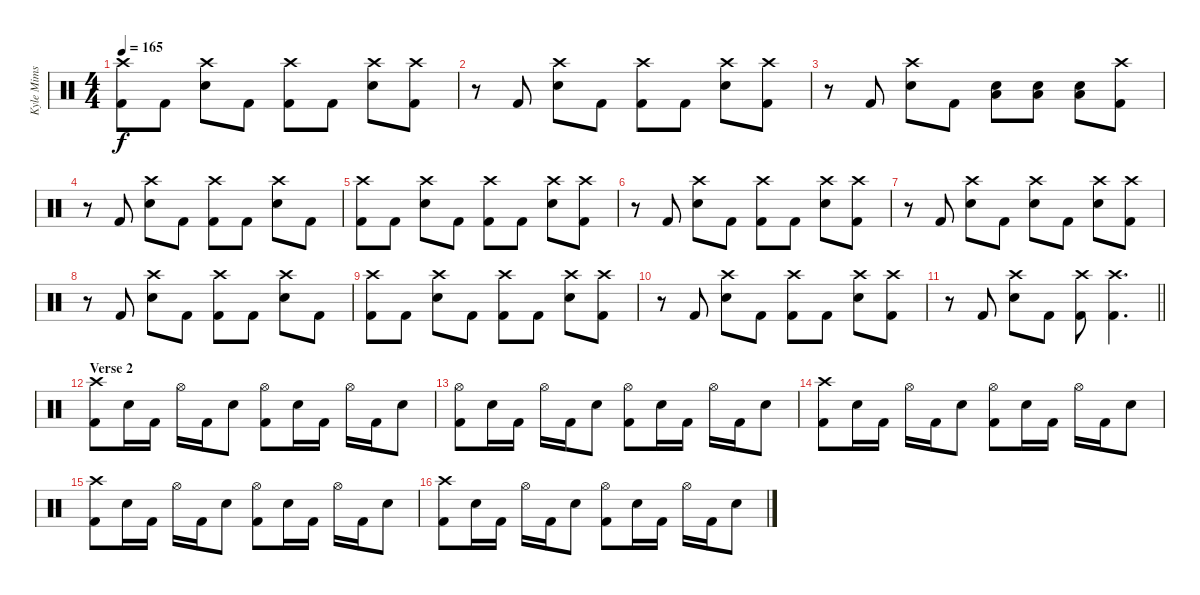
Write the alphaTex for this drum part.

\track ("Kyle Mims" "Kyle Mims") {instrument percussion}
\staff {score}
\articulation defaults
\ts (4 4)
\tempo 165
\clef neutral
\ks c
("Crash high (hit)" "Kick (hit) 2").8{dy f} "Kick (hit) 2".8 ("Crash high (hit)" "Electric Snare (hit)").8 "Kick (hit) 2".8 ("Crash high (hit)" "Kick (hit) 2").8 "Kick (hit) 2".8 ("Crash high (hit)" "Electric Snare (hit)").8 ("Crash high (hit)" "Kick (hit) 2").8 |
r.8 "Kick (hit) 2".8 ("Crash high (hit)" "Electric Snare (hit)").8 "Kick (hit) 2".8 ("Crash high (hit)" "Kick (hit) 2").8 "Kick (hit) 2".8 ("Crash high (hit)" "Electric Snare (hit)").8 ("Crash high (hit)" "Kick (hit) 2").8 |
r.8 "Kick (hit) 2".8 ("Crash high (hit)" "Electric Snare (hit)").8 "Kick (hit) 2".8 ("Electric Snare (hit)" "Low Tom (hit)").8 ("Electric Snare (hit)" "Low Tom (hit)").8 ("Electric Snare (hit)" "Low Tom (hit)").8 ("Crash high (hit)" "Kick (hit) 2").8 |
r.8 "Kick (hit) 2".8 ("Crash high (hit)" "Electric Snare (hit)").8 "Kick (hit) 2".8 ("Crash high (hit)" "Kick (hit) 2").8 "Kick (hit) 2".8 ("Crash high (hit)" "Electric Snare (hit)").8 "Kick (hit) 2".8 |
("Crash high (hit)" "Kick (hit) 2").8 "Kick (hit) 2".8 ("Crash high (hit)" "Electric Snare (hit)").8 "Kick (hit) 2".8 ("Crash high (hit)" "Kick (hit) 2").8 "Kick (hit) 2".8 ("Crash high (hit)" "Electric Snare (hit)").8 ("Crash high (hit)" "Kick (hit) 2").8 |
r.8 "Kick (hit) 2".8 ("Crash high (hit)" "Electric Snare (hit)").8 "Kick (hit) 2".8 ("Crash high (hit)" "Kick (hit) 2").8 "Kick (hit) 2".8 ("Crash high (hit)" "Electric Snare (hit)").8 ("Crash high (hit)" "Kick (hit) 2").8 |
r.8 "Kick (hit) 2".8 ("Crash high (hit)" "Electric Snare (hit)").8 "Kick (hit) 2".8 ("Crash high (hit)" "Electric Snare (hit)").8 "Kick (hit) 2".8 ("Crash high (hit)" "Electric Snare (hit)").8 ("Crash high (hit)" "Kick (hit) 2").8 |
r.8 "Kick (hit) 2".8 ("Crash high (hit)" "Electric Snare (hit)").8 "Kick (hit) 2".8 ("Crash high (hit)" "Kick (hit) 2").8 "Kick (hit) 2".8 ("Crash high (hit)" "Electric Snare (hit)").8 "Kick (hit) 2".8 |
("Crash high (hit)" "Kick (hit) 2").8 "Kick (hit) 2".8 ("Crash high (hit)" "Electric Snare (hit)").8 "Kick (hit) 2".8 ("Crash high (hit)" "Kick (hit) 2").8 "Kick (hit) 2".8 ("Crash high (hit)" "Electric Snare (hit)").8 ("Crash high (hit)" "Kick (hit) 2").8 |
r.8 "Kick (hit) 2".8 ("Crash high (hit)" "Electric Snare (hit)").8 "Kick (hit) 2".8 ("Crash high (hit)" "Kick (hit) 2").8 "Kick (hit) 2".8 ("Crash high (hit)" "Electric Snare (hit)").8 ("Crash high (hit)" "Kick (hit) 2").8 |
\barLineRight lightlight
r.8 "Kick (hit) 2".8 ("Crash high (hit)" "Electric Snare (hit)").8 "Kick (hit) 2".8 ("Crash high (hit)" "Kick (hit) 2").8 ("Crash high (hit)" "Kick (hit) 2").4{d} |
\section ("" "Verse 2")
("Crash high (hit)" "Kick (hit) 2").8 "Electric Snare (hit)".16 "Kick (hit) 2".16 "Hi-Hat (open)".16 "Kick (hit) 2".16 "Electric Snare (hit)".8 ("Hi-Hat (open)" "Kick (hit) 2").8 "Electric Snare (hit)".16 "Kick (hit) 2".16 "Hi-Hat (open)".16 "Kick (hit) 2".16 "Electric Snare (hit)".8 |
("Hi-Hat (open)" "Kick (hit) 2").8 "Electric Snare (hit)".16 "Kick (hit) 2".16 "Hi-Hat (open)".16 "Kick (hit) 2".16 "Electric Snare (hit)".8 ("Hi-Hat (open)" "Kick (hit) 2").8 "Electric Snare (hit)".16 "Kick (hit) 2".16 "Hi-Hat (open)".16 "Kick (hit) 2".16 "Electric Snare (hit)".8 |
("Crash high (hit)" "Kick (hit) 2").8 "Electric Snare (hit)".16 "Kick (hit) 2".16 "Hi-Hat (open)".16 "Kick (hit) 2".16 "Electric Snare (hit)".8 ("Hi-Hat (open)" "Kick (hit) 2").8 "Electric Snare (hit)".16 "Kick (hit) 2".16 "Hi-Hat (open)".16 "Kick (hit) 2".16 "Electric Snare (hit)".8 |
("Crash high (hit)" "Kick (hit) 2").8 "Electric Snare (hit)".16 "Kick (hit) 2".16 "Hi-Hat (open)".16 "Kick (hit) 2".16 "Electric Snare (hit)".8 ("Hi-Hat (open)" "Kick (hit) 2").8 "Electric Snare (hit)".16 "Kick (hit) 2".16 "Hi-Hat (open)".16 "Kick (hit) 2".16 "Electric Snare (hit)".8 |
("Crash high (hit)" "Kick (hit) 2").8 "Electric Snare (hit)".16 "Kick (hit) 2".16 "Hi-Hat (open)".16 "Kick (hit) 2".16 "Electric Snare (hit)".8 ("Hi-Hat (open)" "Kick (hit) 2").8 "Electric Snare (hit)".16 "Kick (hit) 2".16 "Hi-Hat (open)".16 "Kick (hit) 2".16 "Electric Snare (hit)".8
